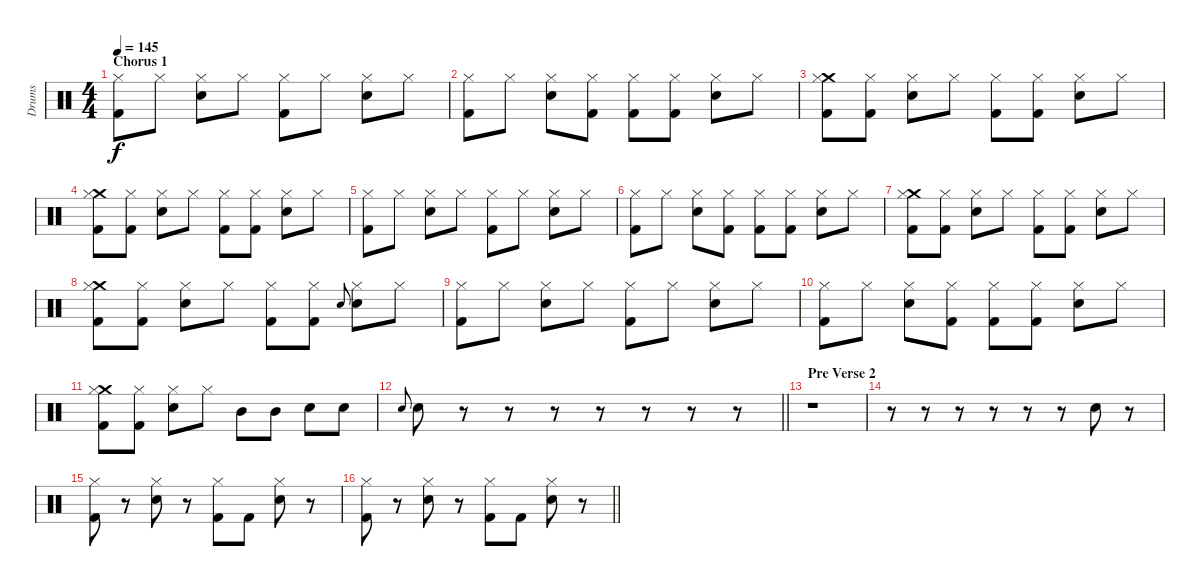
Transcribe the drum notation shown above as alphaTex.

\track ("Drums" "Drums") {instrument percussion}
\staff {score}
\articulation defaults
\ts (4 4)
\section ("" "Chorus 1")
\tempo 145
\clef neutral
\ks c
("Hi-Hat (closed)" "Kick (hit) 2").8{dy f} "Hi-Hat (closed)".8 ("Hi-Hat (closed)" "Electric Snare (hit)").8 "Hi-Hat (closed)".8 ("Hi-Hat (closed)" "Kick (hit) 2").8 "Hi-Hat (closed)".8 ("Hi-Hat (closed)" "Electric Snare (hit)").8 "Hi-Hat (closed)".8 |
("Hi-Hat (closed)" "Kick (hit) 2").8 "Hi-Hat (closed)".8 ("Hi-Hat (closed)" "Electric Snare (hit)").8 ("Hi-Hat (closed)" "Kick (hit) 2").8 ("Hi-Hat (closed)" "Kick (hit) 2").8 ("Hi-Hat (closed)" "Kick (hit) 2").8 ("Hi-Hat (closed)" "Electric Snare (hit)").8 "Hi-Hat (closed)".8 |
("Crash medium (hit)" "Hi-Hat (closed)" "Kick (hit) 2").8 ("Hi-Hat (closed)" "Kick (hit) 2").8 ("Hi-Hat (closed)" "Electric Snare (hit)").8 "Hi-Hat (closed)".8 ("Hi-Hat (closed)" "Kick (hit) 2").8 ("Hi-Hat (closed)" "Kick (hit) 2").8 ("Hi-Hat (closed)" "Electric Snare (hit)").8 "Hi-Hat (closed)".8 |
("Crash medium (hit)" "Hi-Hat (closed)" "Kick (hit) 2").8 ("Hi-Hat (closed)" "Kick (hit) 2").8 ("Hi-Hat (closed)" "Electric Snare (hit)").8 "Hi-Hat (closed)".8 ("Hi-Hat (closed)" "Kick (hit) 2").8 ("Hi-Hat (closed)" "Kick (hit) 2").8 ("Hi-Hat (closed)" "Electric Snare (hit)").8 "Hi-Hat (closed)".8 |
("Hi-Hat (closed)" "Kick (hit) 2").8 "Hi-Hat (closed)".8 ("Hi-Hat (closed)" "Electric Snare (hit)").8 "Hi-Hat (closed)".8 ("Hi-Hat (closed)" "Kick (hit) 2").8 "Hi-Hat (closed)".8 ("Hi-Hat (closed)" "Electric Snare (hit)").8 "Hi-Hat (closed)".8 |
("Hi-Hat (closed)" "Kick (hit) 2").8 "Hi-Hat (closed)".8 ("Hi-Hat (closed)" "Electric Snare (hit)").8 ("Hi-Hat (closed)" "Kick (hit) 2").8 ("Hi-Hat (closed)" "Kick (hit) 2").8 ("Hi-Hat (closed)" "Kick (hit) 2").8 ("Hi-Hat (closed)" "Electric Snare (hit)").8 "Hi-Hat (closed)".8 |
("Crash medium (hit)" "Hi-Hat (closed)" "Kick (hit) 2").8 ("Hi-Hat (closed)" "Kick (hit) 2").8 ("Hi-Hat (closed)" "Electric Snare (hit)").8 "Hi-Hat (closed)".8 ("Hi-Hat (closed)" "Kick (hit) 2").8 ("Hi-Hat (closed)" "Kick (hit) 2").8 ("Hi-Hat (closed)" "Electric Snare (hit)").8 "Hi-Hat (closed)".8 |
("Crash medium (hit)" "Hi-Hat (closed)" "Kick (hit) 2").8 ("Hi-Hat (closed)" "Kick (hit) 2").8 ("Hi-Hat (closed)" "Electric Snare (hit)").8 "Hi-Hat (closed)".8 ("Hi-Hat (closed)" "Kick (hit) 2").8 ("Hi-Hat (closed)" "Kick (hit) 2").8 "Electric Snare (hit)".8{gr onbeat} ("Hi-Hat (closed)" "Electric Snare (hit)").8 "Hi-Hat (closed)".8 |
("Hi-Hat (closed)" "Kick (hit) 2").8 "Hi-Hat (closed)".8 ("Hi-Hat (closed)" "Electric Snare (hit)").8 "Hi-Hat (closed)".8 ("Hi-Hat (closed)" "Kick (hit) 2").8 "Hi-Hat (closed)".8 ("Hi-Hat (closed)" "Electric Snare (hit)").8 "Hi-Hat (closed)".8 |
("Hi-Hat (closed)" "Kick (hit) 2").8 "Hi-Hat (closed)".8 ("Hi-Hat (closed)" "Electric Snare (hit)").8 ("Hi-Hat (closed)" "Kick (hit) 2").8 ("Hi-Hat (closed)" "Kick (hit) 2").8 ("Hi-Hat (closed)" "Kick (hit) 2").8 ("Hi-Hat (closed)" "Electric Snare (hit)").8 "Hi-Hat (closed)".8 |
("Crash medium (hit)" "Hi-Hat (closed)" "Kick (hit) 2").8 ("Hi-Hat (closed)" "Kick (hit) 2").8 ("Hi-Hat (closed)" "Electric Snare (hit)").8 "Hi-Hat (closed)".8 "Mid Tom (hit)".8 "Mid Tom (hit)".8 "Electric Snare (hit)".8 "Electric Snare (hit)".8 |
\barLineRight lightlight "Electric Snare (hit)".8{gr onbeat} "Electric Snare (hit)".8
r.8 r.8 r.8 r.8 r.8 r.8 r.8 |
\section ("" "Pre Verse 2")
r.1 |
r.8 r.8 r.8 r.8 r.8 r.8 "Electric Snare (hit)".8 r.8 |
("Hi-Hat (closed)" "Kick (hit) 2").8 r.8 ("Hi-Hat (closed)" "Electric Snare (hit)").8 r.8 ("Hi-Hat (closed)" "Kick (hit) 2").8 "Kick (hit) 2".8 ("Hi-Hat (closed)" "Electric Snare (hit)").8 r.8 |
\barLineRight lightlight
("Hi-Hat (closed)" "Kick (hit) 2").8 r.8 ("Hi-Hat (closed)" "Electric Snare (hit)").8 r.8 ("Hi-Hat (closed)" "Kick (hit) 2").8 "Kick (hit) 2".8 ("Hi-Hat (closed)" "Electric Snare (hit)").8 r.8
